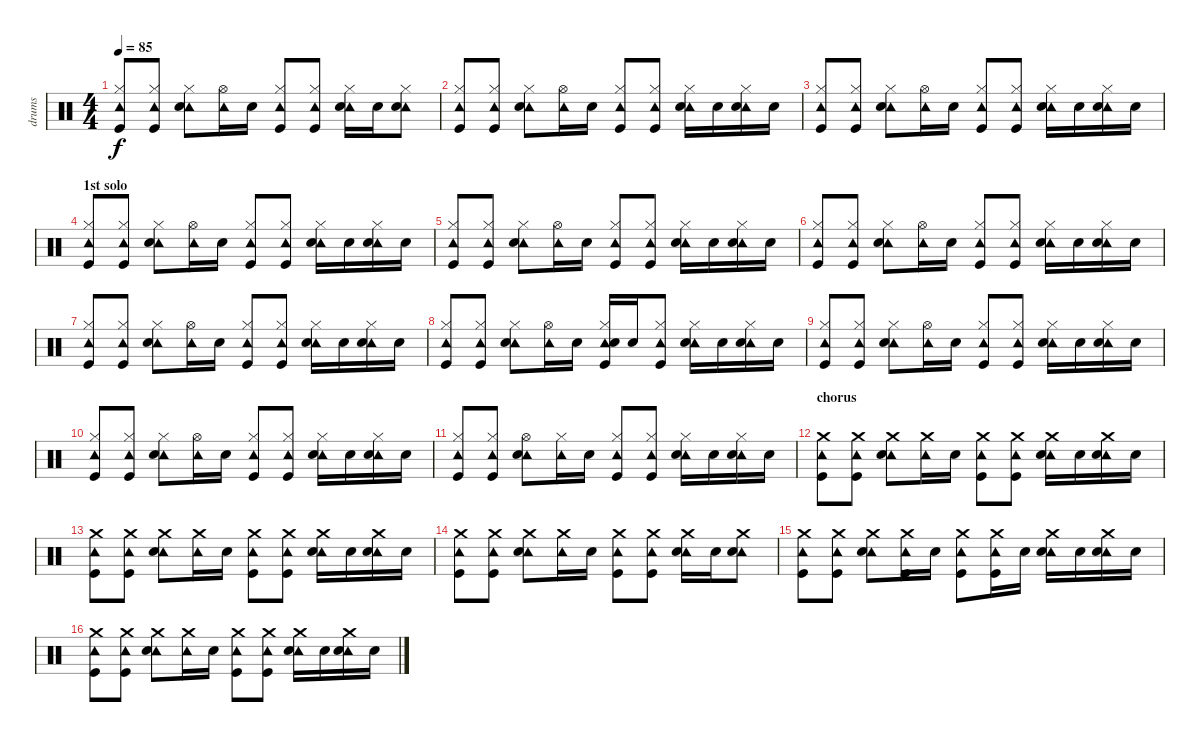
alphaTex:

\track ("drums" "drums") {instrument percussion}
\staff {score}
\articulation defaults
\ts (4 4)
\tempo 85
\clef neutral
\ks c
("Tambourine (hit)" "Hi-Hat (closed)" "Kick (hit)").8{dy f} ("Tambourine (hit)" "Hi-Hat (closed)" "Kick (hit)").8 ("Tambourine (hit)" "Hi-Hat (closed)" "Electric Snare (hit)").8 ("Tambourine (hit)" "Hi-Hat (open)").16 "Electric Snare (hit)".16 ("Tambourine (hit)" "Hi-Hat (closed)" "Kick (hit)").8 ("Tambourine (hit)" "Hi-Hat (closed)" "Kick (hit)").8 ("Tambourine (hit)" "Hi-Hat (closed)" "Electric Snare (hit)").16 "Electric Snare (hit)".16 ("Tambourine (hit)" "Hi-Hat (closed)" "Electric Snare (hit)").8 |
("Tambourine (hit)" "Hi-Hat (closed)" "Kick (hit)").8 ("Tambourine (hit)" "Hi-Hat (closed)" "Kick (hit)").8 ("Tambourine (hit)" "Hi-Hat (closed)" "Electric Snare (hit)").8 ("Tambourine (hit)" "Hi-Hat (open)").16 "Electric Snare (hit)".16 ("Tambourine (hit)" "Hi-Hat (closed)" "Kick (hit)").8 ("Tambourine (hit)" "Hi-Hat (closed)" "Kick (hit)").8 ("Tambourine (hit)" "Hi-Hat (closed)" "Electric Snare (hit)").16 "Electric Snare (hit)".16 ("Tambourine (hit)" "Hi-Hat (closed)" "Electric Snare (hit)").16 "Electric Snare (hit)".16 |
("Tambourine (hit)" "Hi-Hat (closed)" "Kick (hit)").8 ("Tambourine (hit)" "Hi-Hat (closed)" "Kick (hit)").8 ("Tambourine (hit)" "Hi-Hat (closed)" "Electric Snare (hit)").8 ("Tambourine (hit)" "Hi-Hat (open)").16 "Electric Snare (hit)".16 ("Tambourine (hit)" "Hi-Hat (closed)" "Kick (hit)").8 ("Tambourine (hit)" "Hi-Hat (closed)" "Kick (hit)").8 ("Tambourine (hit)" "Hi-Hat (closed)" "Electric Snare (hit)").16 "Electric Snare (hit)".16 ("Tambourine (hit)" "Hi-Hat (closed)" "Electric Snare (hit)").16 "Electric Snare (hit)".16 |
\section ("" "1st solo")
("Tambourine (hit)" "Hi-Hat (closed)" "Kick (hit)").8 ("Tambourine (hit)" "Hi-Hat (closed)" "Kick (hit)").8 ("Tambourine (hit)" "Hi-Hat (closed)" "Electric Snare (hit)").8 ("Tambourine (hit)" "Hi-Hat (open)").16 "Electric Snare (hit)".16 ("Tambourine (hit)" "Hi-Hat (closed)" "Kick (hit)").8 ("Tambourine (hit)" "Hi-Hat (closed)" "Kick (hit)").8 ("Tambourine (hit)" "Hi-Hat (closed)" "Electric Snare (hit)").16 "Electric Snare (hit)".16 ("Tambourine (hit)" "Hi-Hat (closed)" "Electric Snare (hit)").16 "Electric Snare (hit)".16 |
("Tambourine (hit)" "Hi-Hat (closed)" "Kick (hit)").8 ("Tambourine (hit)" "Hi-Hat (closed)" "Kick (hit)").8 ("Tambourine (hit)" "Hi-Hat (closed)" "Electric Snare (hit)").8 ("Tambourine (hit)" "Hi-Hat (open)").16 "Electric Snare (hit)".16 ("Tambourine (hit)" "Hi-Hat (closed)" "Kick (hit)").8 ("Tambourine (hit)" "Hi-Hat (closed)" "Kick (hit)").8 ("Tambourine (hit)" "Hi-Hat (closed)" "Electric Snare (hit)").16 "Electric Snare (hit)".16 ("Tambourine (hit)" "Hi-Hat (closed)" "Electric Snare (hit)").16 "Electric Snare (hit)".16 |
("Tambourine (hit)" "Hi-Hat (closed)" "Kick (hit)").8 ("Tambourine (hit)" "Hi-Hat (closed)" "Kick (hit)").8 ("Tambourine (hit)" "Hi-Hat (closed)" "Electric Snare (hit)").8 ("Tambourine (hit)" "Hi-Hat (open)").16 "Electric Snare (hit)".16 ("Tambourine (hit)" "Hi-Hat (closed)" "Kick (hit)").8 ("Tambourine (hit)" "Hi-Hat (closed)" "Kick (hit)").8 ("Tambourine (hit)" "Hi-Hat (closed)" "Electric Snare (hit)").16 "Electric Snare (hit)".16 ("Tambourine (hit)" "Hi-Hat (closed)" "Electric Snare (hit)").16 "Electric Snare (hit)".16 |
("Tambourine (hit)" "Hi-Hat (closed)" "Kick (hit)").8 ("Tambourine (hit)" "Hi-Hat (closed)" "Kick (hit)").8 ("Tambourine (hit)" "Hi-Hat (closed)" "Electric Snare (hit)").8 ("Tambourine (hit)" "Hi-Hat (open)").16 "Electric Snare (hit)".16 ("Tambourine (hit)" "Hi-Hat (closed)" "Kick (hit)").8 ("Tambourine (hit)" "Hi-Hat (closed)" "Kick (hit)").8 ("Tambourine (hit)" "Hi-Hat (closed)" "Electric Snare (hit)").16 "Electric Snare (hit)".16 ("Tambourine (hit)" "Hi-Hat (closed)" "Electric Snare (hit)").16 "Electric Snare (hit)".16 |
("Tambourine (hit)" "Hi-Hat (closed)" "Kick (hit)").8 ("Tambourine (hit)" "Hi-Hat (closed)" "Kick (hit)").8 ("Tambourine (hit)" "Hi-Hat (closed)" "Electric Snare (hit)").8 ("Tambourine (hit)" "Hi-Hat (open)").16 "Electric Snare (hit)".16 ("Tambourine (hit)" "Hi-Hat (closed)" "Electric Snare (hit)" "Kick (hit)").16 "Electric Snare (hit)".16 ("Tambourine (hit)" "Hi-Hat (closed)" "Kick (hit)").8 ("Tambourine (hit)" "Hi-Hat (closed)" "Electric Snare (hit)").16 "Electric Snare (hit)".16 ("Tambourine (hit)" "Hi-Hat (closed)" "Electric Snare (hit)").16 "Electric Snare (hit)".16 |
("Tambourine (hit)" "Hi-Hat (closed)" "Kick (hit)").8 ("Tambourine (hit)" "Hi-Hat (closed)" "Kick (hit)").8 ("Tambourine (hit)" "Hi-Hat (closed)" "Electric Snare (hit)").8 ("Tambourine (hit)" "Hi-Hat (open)").16 "Electric Snare (hit)".16 ("Tambourine (hit)" "Hi-Hat (closed)" "Kick (hit)").8 ("Tambourine (hit)" "Hi-Hat (closed)" "Kick (hit)").8 ("Tambourine (hit)" "Hi-Hat (closed)" "Electric Snare (hit)").16 "Electric Snare (hit)".16 ("Tambourine (hit)" "Hi-Hat (closed)" "Electric Snare (hit)").16 "Electric Snare (hit)".16 |
("Tambourine (hit)" "Hi-Hat (closed)" "Kick (hit)").8 ("Tambourine (hit)" "Hi-Hat (closed)" "Kick (hit)").8 ("Tambourine (hit)" "Hi-Hat (closed)" "Electric Snare (hit)").8 ("Tambourine (hit)" "Hi-Hat (open)").16 "Electric Snare (hit)".16 ("Tambourine (hit)" "Hi-Hat (closed)" "Kick (hit)").8 ("Tambourine (hit)" "Hi-Hat (closed)" "Kick (hit)").8 ("Tambourine (hit)" "Hi-Hat (closed)" "Electric Snare (hit)").16 "Electric Snare (hit)".16 ("Tambourine (hit)" "Hi-Hat (closed)" "Electric Snare (hit)").16 "Electric Snare (hit)".16 |
("Tambourine (hit)" "Hi-Hat (closed)" "Kick (hit)").8 ("Tambourine (hit)" "Hi-Hat (closed)" "Kick (hit)").8 ("Tambourine (hit)" "Hi-Hat (open)" "Electric Snare (hit)").8 ("Tambourine (hit)" "Hi-Hat (closed)").16 "Electric Snare (hit)".16 ("Tambourine (hit)" "Hi-Hat (closed)" "Kick (hit)").8 ("Tambourine (hit)" "Hi-Hat (closed)" "Kick (hit)").8 ("Tambourine (hit)" "Hi-Hat (closed)" "Electric Snare (hit)").16 "Electric Snare (hit)".16 ("Tambourine (hit)" "Hi-Hat (closed)" "Electric Snare (hit)").16 "Electric Snare (hit)".16 |
\section ("" "chorus")
("Tambourine (hit)" "Crash medium (hit)" "Kick (hit)").8 ("Tambourine (hit)" "Crash medium (hit)" "Kick (hit)").8 ("Tambourine (hit)" "Crash medium (hit)" "Electric Snare (hit)").8 ("Tambourine (hit)" "Crash medium (hit)").16 "Electric Snare (hit)".16 ("Tambourine (hit)" "Crash medium (hit)" "Kick (hit)").8 ("Tambourine (hit)" "Crash medium (hit)" "Kick (hit)").8 ("Tambourine (hit)" "Crash medium (hit)" "Electric Snare (hit)").16 "Electric Snare (hit)".16 ("Tambourine (hit)" "Crash medium (hit)" "Electric Snare (hit)").16 "Electric Snare (hit)".16 |
("Tambourine (hit)" "Crash medium (hit)" "Kick (hit)").8 ("Tambourine (hit)" "Crash medium (hit)" "Kick (hit)").8 ("Tambourine (hit)" "Crash medium (hit)" "Electric Snare (hit)").8 ("Tambourine (hit)" "Crash medium (hit)").16 "Electric Snare (hit)".16 ("Tambourine (hit)" "Crash medium (hit)" "Kick (hit)").8 ("Tambourine (hit)" "Crash medium (hit)" "Kick (hit)").8 ("Tambourine (hit)" "Crash medium (hit)" "Electric Snare (hit)").16 "Electric Snare (hit)".16 ("Tambourine (hit)" "Crash medium (hit)" "Electric Snare (hit)").16 "Electric Snare (hit)".16 |
("Tambourine (hit)" "Crash medium (hit)" "Kick (hit)").8 ("Tambourine (hit)" "Crash medium (hit)" "Kick (hit)").8 ("Tambourine (hit)" "Crash medium (hit)" "Electric Snare (hit)").8 ("Tambourine (hit)" "Crash medium (hit)").16 "Electric Snare (hit)".16 ("Tambourine (hit)" "Crash medium (hit)" "Kick (hit)").8 ("Tambourine (hit)" "Crash medium (hit)" "Kick (hit)").8 ("Tambourine (hit)" "Crash medium (hit)" "Electric Snare (hit)").16 "Electric Snare (hit)".16 ("Tambourine (hit)" "Crash medium (hit)" "Electric Snare (hit)").8 |
("Tambourine (hit)" "Crash medium (hit)" "Kick (hit)").8 ("Tambourine (hit)" "Crash medium (hit)" "Kick (hit)").8 ("Tambourine (hit)" "Crash medium (hit)" "Electric Snare (hit)").8 ("Tambourine (hit)" "Crash medium (hit)" "Kick (hit)").16 "Electric Snare (hit)".16 ("Tambourine (hit)" "Crash medium (hit)" "Kick (hit)").8 ("Tambourine (hit)" "Crash medium (hit)" "Kick (hit)").16 "Electric Snare (hit)".16 ("Tambourine (hit)" "Crash medium (hit)" "Electric Snare (hit)").16 "Electric Snare (hit)".16 ("Tambourine (hit)" "Crash medium (hit)" "Electric Snare (hit)").16 "Electric Snare (hit)".16 |
\section ("" "")
("Tambourine (hit)" "Crash medium (hit)" "Kick (hit)").8 ("Tambourine (hit)" "Crash medium (hit)" "Kick (hit)").8 ("Tambourine (hit)" "Crash medium (hit)" "Electric Snare (hit)").8 ("Tambourine (hit)" "Crash medium (hit)").16 "Electric Snare (hit)".16 ("Tambourine (hit)" "Crash medium (hit)" "Kick (hit)").8 ("Tambourine (hit)" "Crash medium (hit)" "Kick (hit)").8 ("Tambourine (hit)" "Crash medium (hit)" "Electric Snare (hit)").16 "Electric Snare (hit)".16 ("Tambourine (hit)" "Crash medium (hit)" "Electric Snare (hit)").16 "Electric Snare (hit)".16
